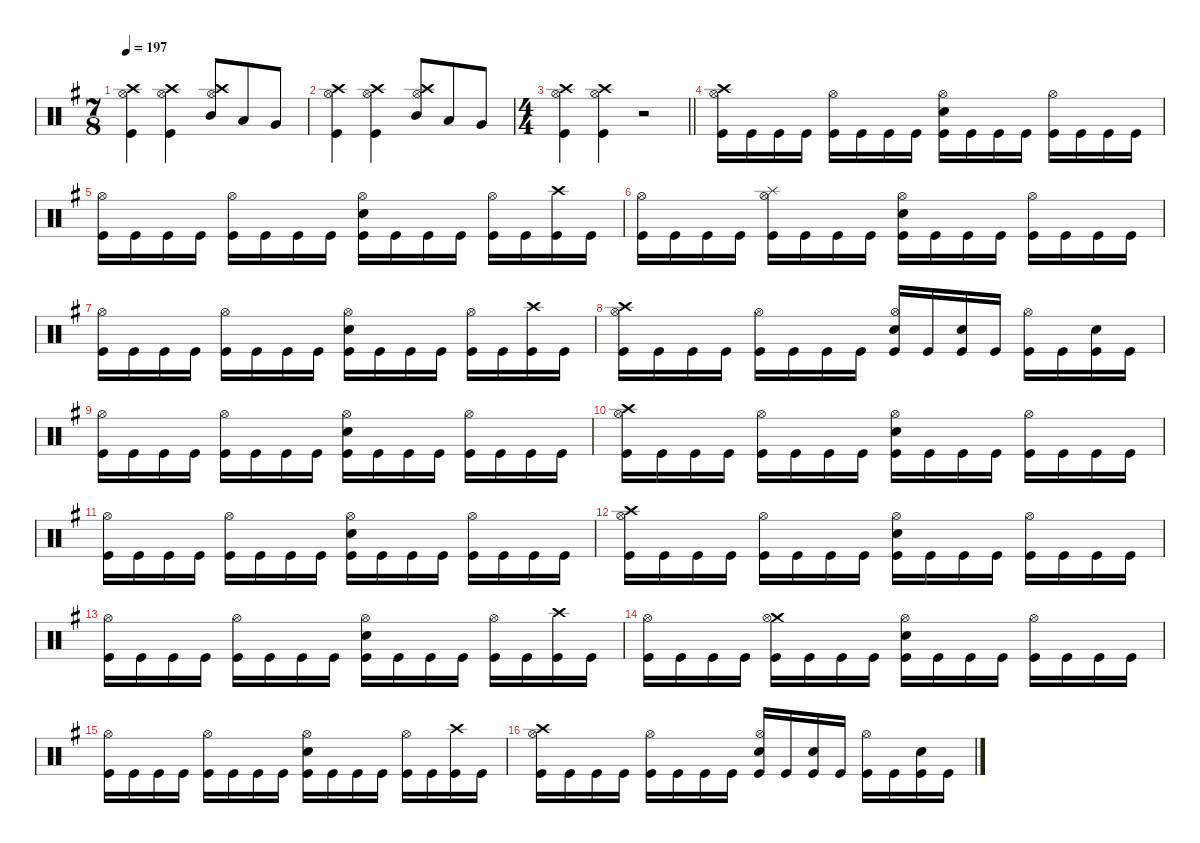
\defaultSystemsLayout 4
\hideDynamics
\bracketExtendMode nobrackets
\singleTrackTrackNamePolicy hidden
\multiTrackTrackNamePolicy hidden
\firstSystemTrackNameMode fullname
\firstSystemTrackNameOrientation horizontal
\otherSystemsTrackNameOrientation horizontal
\track ("Drums" "drm.") {defaultSystemsLayout 4 instrument percussion}
\staff {score}
\articulation defaults
\ts (7 8)
\tempo 197
\clef neutral
\ks eminor
("Crash high (hit)"{acc forcenatural} "Hi-Hat (open)"{acc forcenatural} "Kick (hit)"{acc forcenatural}).4{dy f beam Down} ("Crash high (hit)"{acc forcenatural} "Hi-Hat (open)"{acc forcenatural} "Kick (hit)"{acc forcenatural}).4{beam Down} ("Crash high (hit)"{acc forcenatural} "Hi-Hat (open)"{acc forcenatural} "Mid Tom (hit)"{acc forcenatural}).8{beam Up} "Low Tom (hit)"{acc forcenatural}.8{beam Up} "Very Low Tom (hit)"{acc forcenatural}.8{beam Up} |
("Crash high (hit)"{acc forcenatural} "Hi-Hat (open)"{acc forcenatural} "Kick (hit)"{acc forcenatural}).4{beam Down} ("Crash high (hit)"{acc forcenatural} "Hi-Hat (open)"{acc forcenatural} "Kick (hit)"{acc forcenatural}).4{beam Down} ("Crash high (hit)"{acc forcenatural} "Hi-Hat (open)"{acc forcenatural} "Mid Tom (hit)"{acc forcenatural}).8{beam Up} "Low Tom (hit)"{acc forcenatural}.8{beam Up} "Very Low Tom (hit)"{acc forcenatural}.8{beam Up} |
\ts (4 4)
\beaming (8 2 2 2 2)
\barLineRight lightlight
("Crash high (hit)"{acc forcenatural} "Hi-Hat (open)"{acc forcenatural} "Kick (hit)"{acc forcenatural}).4{beam Down} ("Crash high (hit)"{acc forcenatural} "Hi-Hat (open)"{acc forcenatural} "Kick (hit)"{acc forcenatural}).4{beam Down} r.2{beam Down} |
("Crash high (hit)"{acc forcenatural} "Hi-Hat (open)"{acc forcenatural} "Kick (hit)"{acc forcenatural}).16{beam Down} "Kick (hit)"{acc forcenatural}.16{beam Down} "Kick (hit)"{acc forcenatural}.16{beam Down} "Kick (hit)"{acc forcenatural}.16{beam Down} ("Hi-Hat (open)"{acc forcenatural} "Kick (hit)"{acc forcenatural}).16{beam Down} "Kick (hit)"{acc forcenatural}.16{beam Down} "Kick (hit)"{acc forcenatural}.16{beam Down} "Kick (hit)"{acc forcenatural}.16{beam Down} ("Hi-Hat (open)"{acc forcenatural} "Snare (hit) 2"{acc forcenatural} "Kick (hit)"{acc forcenatural}).16{beam Down} "Kick (hit)"{acc forcenatural}.16{beam Down} "Kick (hit)"{acc forcenatural}.16{beam Down} "Kick (hit)"{acc forcenatural}.16{beam Down} ("Hi-Hat (open)"{acc forcenatural} "Kick (hit)"{acc forcenatural}).16{beam Down} "Kick (hit)"{acc forcenatural}.16{beam Down} "Kick (hit)"{acc forcenatural}.16{beam Down} "Kick (hit)"{acc forcenatural}.16{beam Down} |
("Hi-Hat (open)"{acc forcenatural} "Kick (hit)"{acc forcenatural}).16{beam Down} "Kick (hit)"{acc forcenatural}.16{beam Down} "Kick (hit)"{acc forcenatural}.16{beam Down} "Kick (hit)"{acc forcenatural}.16{beam Down} ("Hi-Hat (open)"{acc forcenatural} "Kick (hit)"{acc forcenatural}).16{beam Down} "Kick (hit)"{acc forcenatural}.16{beam Down} "Kick (hit)"{acc forcenatural}.16{beam Down} "Kick (hit)"{acc forcenatural}.16{beam Down} ("Hi-Hat (open)"{acc forcenatural} "Snare (hit) 2"{acc forcenatural} "Kick (hit)"{acc forcenatural}).16{beam Down} "Kick (hit)"{acc forcenatural}.16{beam Down} "Kick (hit)"{acc forcenatural}.16{beam Down} "Kick (hit)"{acc forcenatural}.16{beam Down} ("Hi-Hat (open)"{acc forcenatural} "Kick (hit)"{acc forcenatural}).16{beam Down} "Kick (hit)"{acc forcenatural}.16{beam Down} ("Crash high (hit)"{acc forcenatural} "Kick (hit)"{acc forcenatural}).16{beam Down} "Kick (hit)"{acc forcenatural}.16{beam Down} |
("Hi-Hat (open)"{acc forcenatural} "Kick (hit)"{acc forcenatural}).16{beam Down} "Kick (hit)"{acc forcenatural}.16{beam Down} "Kick (hit)"{acc forcenatural}.16{beam Down} "Kick (hit)"{acc forcenatural}.16{beam Down} ("Splash (hit)"{acc forcenatural} "Hi-Hat (open)"{acc forcenatural} "Kick (hit)"{acc forcenatural}).16{beam Down} "Kick (hit)"{acc forcenatural}.16{beam Down} "Kick (hit)"{acc forcenatural}.16{beam Down} "Kick (hit)"{acc forcenatural}.16{beam Down} ("Hi-Hat (open)"{acc forcenatural} "Snare (hit) 2"{acc forcenatural} "Kick (hit)"{acc forcenatural}).16{beam Down} "Kick (hit)"{acc forcenatural}.16{beam Down} "Kick (hit)"{acc forcenatural}.16{beam Down} "Kick (hit)"{acc forcenatural}.16{beam Down} ("Hi-Hat (open)"{acc forcenatural} "Kick (hit)"{acc forcenatural}).16{beam Down} "Kick (hit)"{acc forcenatural}.16{beam Down} "Kick (hit)"{acc forcenatural}.16{beam Down} "Kick (hit)"{acc forcenatural}.16{beam Down} |
("Hi-Hat (open)"{acc forcenatural} "Kick (hit)"{acc forcenatural}).16{beam Down} "Kick (hit)"{acc forcenatural}.16{beam Down} "Kick (hit)"{acc forcenatural}.16{beam Down} "Kick (hit)"{acc forcenatural}.16{beam Down} ("Hi-Hat (open)"{acc forcenatural} "Kick (hit)"{acc forcenatural}).16{beam Down} "Kick (hit)"{acc forcenatural}.16{beam Down} "Kick (hit)"{acc forcenatural}.16{beam Down} "Kick (hit)"{acc forcenatural}.16{beam Down} ("Hi-Hat (open)"{acc forcenatural} "Snare (hit) 2"{acc forcenatural} "Kick (hit)"{acc forcenatural}).16{beam Down} "Kick (hit)"{acc forcenatural}.16{beam Down} "Kick (hit)"{acc forcenatural}.16{beam Down} "Kick (hit)"{acc forcenatural}.16{beam Down} ("Hi-Hat (open)"{acc forcenatural} "Kick (hit)"{acc forcenatural}).16{beam Down} "Kick (hit)"{acc forcenatural}.16{beam Down} ("Crash high (hit)"{acc forcenatural} "Kick (hit)"{acc forcenatural}).16{beam Down} "Kick (hit)"{acc forcenatural}.16{beam Down} |
("Crash high (hit)"{acc forcenatural} "Hi-Hat (open)"{acc forcenatural} "Kick (hit)"{acc forcenatural}).16{beam Down} "Kick (hit)"{acc forcenatural}.16{beam Down} "Kick (hit)"{acc forcenatural}.16{beam Down} "Kick (hit)"{acc forcenatural}.16{beam Down} ("Hi-Hat (open)"{acc forcenatural} "Kick (hit)"{acc forcenatural}).16{beam Down} "Kick (hit)"{acc forcenatural}.16{beam Down} "Kick (hit)"{acc forcenatural}.16{beam Down} "Kick (hit)"{acc forcenatural}.16{beam Down} ("Hi-Hat (open)"{acc forcenatural} "Snare (hit) 2"{acc forcenatural} "Kick (hit)"{acc forcenatural}).16{beam Up} "Kick (hit)"{acc forcenatural}.16{beam Up} ("Snare (hit) 2"{acc forcenatural} "Kick (hit)"{acc forcenatural}).16{beam Up} "Kick (hit)"{acc forcenatural}.16{beam Up} ("Hi-Hat (open)"{acc forcenatural} "Kick (hit)"{acc forcenatural}).16{beam Down} "Kick (hit)"{acc forcenatural}.16{beam Down} ("Snare (hit) 2"{acc forcenatural} "Kick (hit)"{acc forcenatural}).16{beam Down} "Kick (hit)"{acc forcenatural}.16{beam Down} |
("Hi-Hat (open)"{acc forcenatural} "Kick (hit)"{acc forcenatural}).16{beam Down} "Kick (hit)"{acc forcenatural}.16{beam Down} "Kick (hit)"{acc forcenatural}.16{beam Down} "Kick (hit)"{acc forcenatural}.16{beam Down} ("Hi-Hat (open)"{acc forcenatural} "Kick (hit)"{acc forcenatural}).16{beam Down} "Kick (hit)"{acc forcenatural}.16{beam Down} "Kick (hit)"{acc forcenatural}.16{beam Down} "Kick (hit)"{acc forcenatural}.16{beam Down} ("Hi-Hat (open)"{acc forcenatural} "Snare (hit) 2"{acc forcenatural} "Kick (hit)"{acc forcenatural}).16{beam Down} "Kick (hit)"{acc forcenatural}.16{beam Down} "Kick (hit)"{acc forcenatural}.16{beam Down} "Kick (hit)"{acc forcenatural}.16{beam Down} ("Hi-Hat (open)"{acc forcenatural} "Kick (hit)"{acc forcenatural}).16{beam Down} "Kick (hit)"{acc forcenatural}.16{beam Down} "Kick (hit)"{acc forcenatural}.16{beam Down} "Kick (hit)"{acc forcenatural}.16{beam Down} |
("Crash high (hit)"{acc forcenatural} "Hi-Hat (open)"{acc forcenatural} "Kick (hit)"{acc forcenatural}).16{beam Down} "Kick (hit)"{acc forcenatural}.16{beam Down} "Kick (hit)"{acc forcenatural}.16{beam Down} "Kick (hit)"{acc forcenatural}.16{beam Down} ("Hi-Hat (open)"{acc forcenatural} "Kick (hit)"{acc forcenatural}).16{beam Down} "Kick (hit)"{acc forcenatural}.16{beam Down} "Kick (hit)"{acc forcenatural}.16{beam Down} "Kick (hit)"{acc forcenatural}.16{beam Down} ("Hi-Hat (open)"{acc forcenatural} "Snare (hit) 2"{acc forcenatural} "Kick (hit)"{acc forcenatural}).16{beam Down} "Kick (hit)"{acc forcenatural}.16{beam Down} "Kick (hit)"{acc forcenatural}.16{beam Down} "Kick (hit)"{acc forcenatural}.16{beam Down} ("Hi-Hat (open)"{acc forcenatural} "Kick (hit)"{acc forcenatural}).16{beam Down} "Kick (hit)"{acc forcenatural}.16{beam Down} "Kick (hit)"{acc forcenatural}.16{beam Down} "Kick (hit)"{acc forcenatural}.16{beam Down} |
("Hi-Hat (open)"{acc forcenatural} "Kick (hit)"{acc forcenatural}).16{beam Down} "Kick (hit)"{acc forcenatural}.16{beam Down} "Kick (hit)"{acc forcenatural}.16{beam Down} "Kick (hit)"{acc forcenatural}.16{beam Down} ("Hi-Hat (open)"{acc forcenatural} "Kick (hit)"{acc forcenatural}).16{beam Down} "Kick (hit)"{acc forcenatural}.16{beam Down} "Kick (hit)"{acc forcenatural}.16{beam Down} "Kick (hit)"{acc forcenatural}.16{beam Down} ("Hi-Hat (open)"{acc forcenatural} "Snare (hit) 2"{acc forcenatural} "Kick (hit)"{acc forcenatural}).16{beam Down} "Kick (hit)"{acc forcenatural}.16{beam Down} "Kick (hit)"{acc forcenatural}.16{beam Down} "Kick (hit)"{acc forcenatural}.16{beam Down} ("Hi-Hat (open)"{acc forcenatural} "Kick (hit)"{acc forcenatural}).16{beam Down} "Kick (hit)"{acc forcenatural}.16{beam Down} "Kick (hit)"{acc forcenatural}.16{beam Down} "Kick (hit)"{acc forcenatural}.16{beam Down} |
("Crash high (hit)"{acc forcenatural} "Hi-Hat (open)"{acc forcenatural} "Kick (hit)"{acc forcenatural}).16{beam Down} "Kick (hit)"{acc forcenatural}.16{beam Down} "Kick (hit)"{acc forcenatural}.16{beam Down} "Kick (hit)"{acc forcenatural}.16{beam Down} ("Hi-Hat (open)"{acc forcenatural} "Kick (hit)"{acc forcenatural}).16{beam Down} "Kick (hit)"{acc forcenatural}.16{beam Down} "Kick (hit)"{acc forcenatural}.16{beam Down} "Kick (hit)"{acc forcenatural}.16{beam Down} ("Hi-Hat (open)"{acc forcenatural} "Snare (hit) 2"{acc forcenatural} "Kick (hit)"{acc forcenatural}).16{beam Down} "Kick (hit)"{acc forcenatural}.16{beam Down} "Kick (hit)"{acc forcenatural}.16{beam Down} "Kick (hit)"{acc forcenatural}.16{beam Down} ("Hi-Hat (open)"{acc forcenatural} "Kick (hit)"{acc forcenatural}).16{beam Down} "Kick (hit)"{acc forcenatural}.16{beam Down} "Kick (hit)"{acc forcenatural}.16{beam Down} "Kick (hit)"{acc forcenatural}.16{beam Down} |
("Hi-Hat (open)"{acc forcenatural} "Kick (hit)"{acc forcenatural}).16{beam Down} "Kick (hit)"{acc forcenatural}.16{beam Down} "Kick (hit)"{acc forcenatural}.16{beam Down} "Kick (hit)"{acc forcenatural}.16{beam Down} ("Hi-Hat (open)"{acc forcenatural} "Kick (hit)"{acc forcenatural}).16{beam Down} "Kick (hit)"{acc forcenatural}.16{beam Down} "Kick (hit)"{acc forcenatural}.16{beam Down} "Kick (hit)"{acc forcenatural}.16{beam Down} ("Hi-Hat (open)"{acc forcenatural} "Snare (hit) 2"{acc forcenatural} "Kick (hit)"{acc forcenatural}).16{beam Down} "Kick (hit)"{acc forcenatural}.16{beam Down} "Kick (hit)"{acc forcenatural}.16{beam Down} "Kick (hit)"{acc forcenatural}.16{beam Down} ("Hi-Hat (open)"{acc forcenatural} "Kick (hit)"{acc forcenatural}).16{beam Down} "Kick (hit)"{acc forcenatural}.16{beam Down} ("Crash high (hit)"{acc forcenatural} "Kick (hit)"{acc forcenatural}).16{beam Down} "Kick (hit)"{acc forcenatural}.16{beam Down} |
("Hi-Hat (open)"{acc forcenatural} "Kick (hit)"{acc forcenatural}).16{beam Down} "Kick (hit)"{acc forcenatural}.16{beam Down} "Kick (hit)"{acc forcenatural}.16{beam Down} "Kick (hit)"{acc forcenatural}.16{beam Down} ("Crash medium (hit)"{acc forcenatural} "Hi-Hat (open)"{acc forcenatural} "Kick (hit)"{acc forcenatural}).16{beam Down} "Kick (hit)"{acc forcenatural}.16{beam Down} "Kick (hit)"{acc forcenatural}.16{beam Down} "Kick (hit)"{acc forcenatural}.16{beam Down} ("Hi-Hat (open)"{acc forcenatural} "Snare (hit) 2"{acc forcenatural} "Kick (hit)"{acc forcenatural}).16{beam Down} "Kick (hit)"{acc forcenatural}.16{beam Down} "Kick (hit)"{acc forcenatural}.16{beam Down} "Kick (hit)"{acc forcenatural}.16{beam Down} ("Hi-Hat (open)"{acc forcenatural} "Kick (hit)"{acc forcenatural}).16{beam Down} "Kick (hit)"{acc forcenatural}.16{beam Down} "Kick (hit)"{acc forcenatural}.16{beam Down} "Kick (hit)"{acc forcenatural}.16{beam Down} |
("Hi-Hat (open)"{acc forcenatural} "Kick (hit)"{acc forcenatural}).16{beam Down} "Kick (hit)"{acc forcenatural}.16{beam Down} "Kick (hit)"{acc forcenatural}.16{beam Down} "Kick (hit)"{acc forcenatural}.16{beam Down} ("Hi-Hat (open)"{acc forcenatural} "Kick (hit)"{acc forcenatural}).16{beam Down} "Kick (hit)"{acc forcenatural}.16{beam Down} "Kick (hit)"{acc forcenatural}.16{beam Down} "Kick (hit)"{acc forcenatural}.16{beam Down} ("Hi-Hat (open)"{acc forcenatural} "Snare (hit) 2"{acc forcenatural} "Kick (hit)"{acc forcenatural}).16{beam Down} "Kick (hit)"{acc forcenatural}.16{beam Down} "Kick (hit)"{acc forcenatural}.16{beam Down} "Kick (hit)"{acc forcenatural}.16{beam Down} ("Hi-Hat (open)"{acc forcenatural} "Kick (hit)"{acc forcenatural}).16{beam Down} "Kick (hit)"{acc forcenatural}.16{beam Down} ("Crash high (hit)"{acc forcenatural} "Kick (hit)"{acc forcenatural}).16{beam Down} "Kick (hit)"{acc forcenatural}.16{beam Down} |
("Crash high (hit)"{acc forcenatural} "Hi-Hat (open)"{acc forcenatural} "Kick (hit)"{acc forcenatural}).16{beam Down} "Kick (hit)"{acc forcenatural}.16{beam Down} "Kick (hit)"{acc forcenatural}.16{beam Down} "Kick (hit)"{acc forcenatural}.16{beam Down} ("Hi-Hat (open)"{acc forcenatural} "Kick (hit)"{acc forcenatural}).16{beam Down} "Kick (hit)"{acc forcenatural}.16{beam Down} "Kick (hit)"{acc forcenatural}.16{beam Down} "Kick (hit)"{acc forcenatural}.16{beam Down} ("Hi-Hat (open)"{acc forcenatural} "Snare (hit) 2"{acc forcenatural} "Kick (hit)"{acc forcenatural}).16{beam Up} "Kick (hit)"{acc forcenatural}.16{beam Up} ("Snare (hit) 2"{acc forcenatural} "Kick (hit)"{acc forcenatural}).16{beam Up} "Kick (hit)"{acc forcenatural}.16{beam Up} ("Hi-Hat (open)"{acc forcenatural} "Kick (hit)"{acc forcenatural}).16{beam Down} "Kick (hit)"{acc forcenatural}.16{beam Down} ("Snare (hit) 2"{acc forcenatural} "Kick (hit)"{acc forcenatural}).16{beam Down} "Kick (hit)"{acc forcenatural}.16{beam Down}
